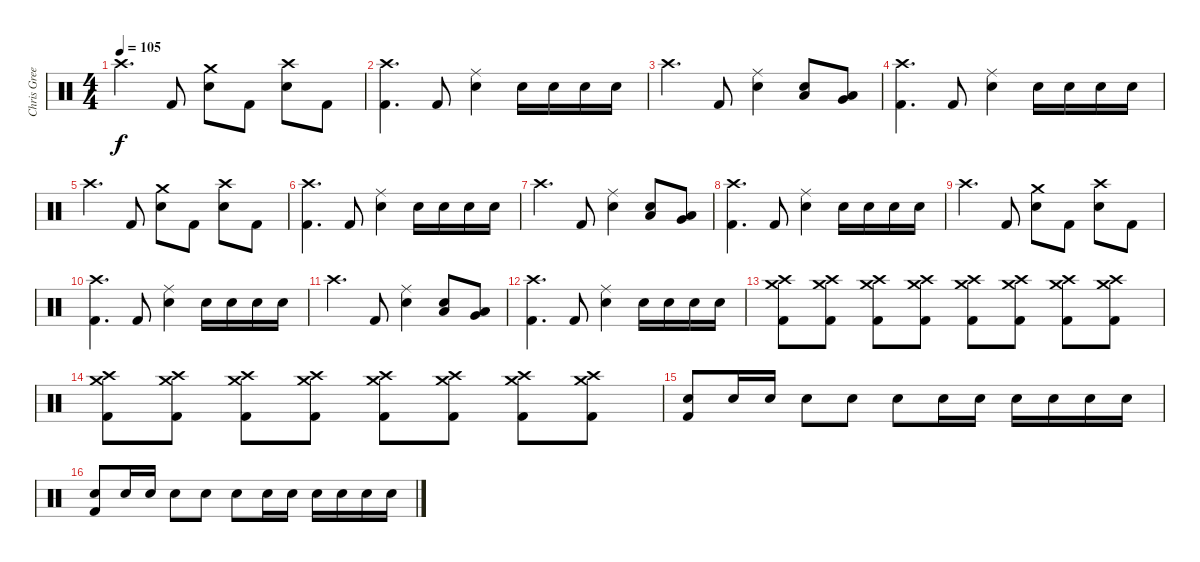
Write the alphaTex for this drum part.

\track ("Chris Greene" "Chris Gree") {instrument percussion}
\staff {score}
\articulation defaults
\ts (4 4)
\tempo 105
\clef neutral
\ks c "Crash high (hit)".4{d dy f} "Kick (hit) 2".8
("Crash medium (hit)" "Electric Snare (hit)").8 "Kick (hit) 2".8 ("Crash high (hit)" "Electric Snare (hit)").8 "Kick (hit) 2".8 |
("Crash high (hit)" "Kick (hit) 2").4{d} "Kick (hit) 2".8 ("Ride (middle)" "Electric Snare (hit)").4 "Electric Snare (hit)".16 "Electric Snare (hit)".16 "Electric Snare (hit)".16 "Electric Snare (hit)".16 |
"Crash high (hit)".4{d} "Kick (hit) 2".8 ("Ride (middle)" "Electric Snare (hit)").4 ("Electric Snare (hit)" "Low Tom (hit)").8 ("Very Low Tom (hit)" "Low Tom (hit)").8 |
("Crash high (hit)" "Kick (hit) 2").4{d} "Kick (hit) 2".8 ("Ride (middle)" "Electric Snare (hit)").4 "Electric Snare (hit)".16 "Electric Snare (hit)".16 "Electric Snare (hit)".16 "Electric Snare (hit)".16 |
"Crash high (hit)".4{d} "Kick (hit) 2".8 ("Crash medium (hit)" "Electric Snare (hit)").8 "Kick (hit) 2".8 ("Crash high (hit)" "Electric Snare (hit)").8 "Kick (hit) 2".8 |
("Crash high (hit)" "Kick (hit) 2").4{d} "Kick (hit) 2".8 ("Ride (middle)" "Electric Snare (hit)").4 "Electric Snare (hit)".16 "Electric Snare (hit)".16 "Electric Snare (hit)".16 "Electric Snare (hit)".16 |
"Crash high (hit)".4{d} "Kick (hit) 2".8 ("Ride (middle)" "Electric Snare (hit)").4 ("Electric Snare (hit)" "Low Tom (hit)").8 ("Very Low Tom (hit)" "Low Tom (hit)").8 |
("Crash high (hit)" "Kick (hit) 2").4{d} "Kick (hit) 2".8 ("Ride (middle)" "Electric Snare (hit)").4 "Electric Snare (hit)".16 "Electric Snare (hit)".16 "Electric Snare (hit)".16 "Electric Snare (hit)".16 |
"Crash high (hit)".4{d} "Kick (hit) 2".8 ("Crash medium (hit)" "Electric Snare (hit)").8 "Kick (hit) 2".8 ("Crash high (hit)" "Electric Snare (hit)").8 "Kick (hit) 2".8 |
("Crash high (hit)" "Kick (hit) 2").4{d} "Kick (hit) 2".8 ("Ride (middle)" "Electric Snare (hit)").4 "Electric Snare (hit)".16 "Electric Snare (hit)".16 "Electric Snare (hit)".16 "Electric Snare (hit)".16 |
"Crash high (hit)".4{d} "Kick (hit) 2".8 ("Ride (middle)" "Electric Snare (hit)").4 ("Electric Snare (hit)" "Low Tom (hit)").8 ("Very Low Tom (hit)" "Low Tom (hit)").8 |
("Crash high (hit)" "Kick (hit) 2").4{d} "Kick (hit) 2".8 ("Ride (middle)" "Electric Snare (hit)").4 "Electric Snare (hit)".16 "Electric Snare (hit)".16 "Electric Snare (hit)".16 "Electric Snare (hit)".16 |
("Crash high (hit)" "Crash medium (hit)" "Kick (hit) 2").8 ("Crash high (hit)" "Crash medium (hit)" "Kick (hit) 2").8 ("Crash high (hit)" "Crash medium (hit)" "Kick (hit) 2").8 ("Crash high (hit)" "Crash medium (hit)" "Kick (hit) 2").8 ("Crash high (hit)" "Crash medium (hit)" "Kick (hit) 2").8 ("Crash high (hit)" "Crash medium (hit)" "Kick (hit) 2").8 ("Crash high (hit)" "Crash medium (hit)" "Kick (hit) 2").8 ("Crash high (hit)" "Crash medium (hit)" "Kick (hit) 2").8 |
("Crash high (hit)" "Crash medium (hit)" "Kick (hit) 2").8 ("Crash high (hit)" "Crash medium (hit)" "Kick (hit) 2").8 ("Crash high (hit)" "Crash medium (hit)" "Kick (hit) 2").8 ("Crash high (hit)" "Crash medium (hit)" "Kick (hit) 2").8 ("Crash high (hit)" "Crash medium (hit)" "Kick (hit) 2").8 ("Crash high (hit)" "Crash medium (hit)" "Kick (hit) 2").8 ("Crash high (hit)" "Crash medium (hit)" "Kick (hit) 2").8 ("Crash high (hit)" "Crash medium (hit)" "Kick (hit) 2").8 |
("Electric Snare (hit)" "Kick (hit) 2").8 "Electric Snare (hit)".16 "Electric Snare (hit)".16 "Electric Snare (hit)".8 "Electric Snare (hit)".8 "Electric Snare (hit)".8 "Electric Snare (hit)".16 "Electric Snare (hit)".16 "Electric Snare (hit)".16 "Electric Snare (hit)".16 "Electric Snare (hit)".16 "Electric Snare (hit)".16 |
("Electric Snare (hit)" "Kick (hit) 2").8 "Electric Snare (hit)".16 "Electric Snare (hit)".16 "Electric Snare (hit)".8 "Electric Snare (hit)".8 "Electric Snare (hit)".8 "Electric Snare (hit)".16 "Electric Snare (hit)".16 "Electric Snare (hit)".16 "Electric Snare (hit)".16 "Electric Snare (hit)".16 "Electric Snare (hit)".16
